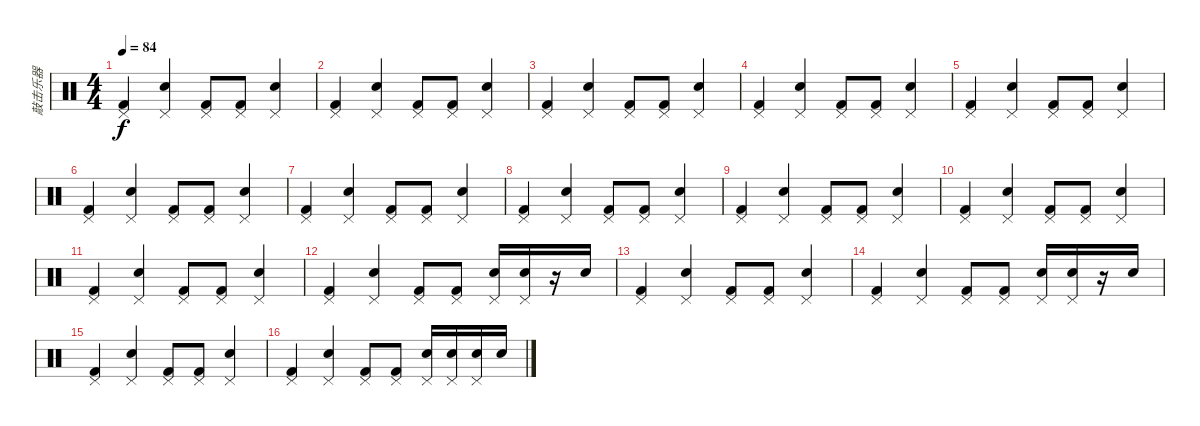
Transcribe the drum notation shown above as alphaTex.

\track ("敲击乐器" "敲击乐器") {instrument percussion}
\staff {score}
\articulation defaults
\ts (4 4)
\tempo 84
\clef neutral
\ks c
("Kick (hit) 2" "Pedal Hi-Hat (hit)").4{dy f} ("Snare (hit) 2" "Pedal Hi-Hat (hit)").4 ("Kick (hit) 2" "Pedal Hi-Hat (hit)").8 ("Kick (hit) 2" "Pedal Hi-Hat (hit)").8 ("Snare (hit) 2" "Pedal Hi-Hat (hit)").4 |
("Kick (hit) 2" "Pedal Hi-Hat (hit)").4 ("Snare (hit) 2" "Pedal Hi-Hat (hit)").4 ("Kick (hit) 2" "Pedal Hi-Hat (hit)").8 ("Kick (hit) 2" "Pedal Hi-Hat (hit)").8 ("Snare (hit) 2" "Pedal Hi-Hat (hit)").4 |
("Kick (hit) 2" "Pedal Hi-Hat (hit)").4 ("Snare (hit) 2" "Pedal Hi-Hat (hit)").4 ("Kick (hit) 2" "Pedal Hi-Hat (hit)").8 ("Kick (hit) 2" "Pedal Hi-Hat (hit)").8 ("Snare (hit) 2" "Pedal Hi-Hat (hit)").4 |
("Kick (hit) 2" "Pedal Hi-Hat (hit)").4 ("Snare (hit) 2" "Pedal Hi-Hat (hit)").4 ("Kick (hit) 2" "Pedal Hi-Hat (hit)").8 ("Kick (hit) 2" "Pedal Hi-Hat (hit)").8 ("Snare (hit) 2" "Pedal Hi-Hat (hit)").4 |
("Kick (hit) 2" "Pedal Hi-Hat (hit)").4 ("Snare (hit) 2" "Pedal Hi-Hat (hit)").4 ("Kick (hit) 2" "Pedal Hi-Hat (hit)").8 ("Kick (hit) 2" "Pedal Hi-Hat (hit)").8 ("Snare (hit) 2" "Pedal Hi-Hat (hit)").4 |
("Kick (hit) 2" "Pedal Hi-Hat (hit)").4 ("Snare (hit) 2" "Pedal Hi-Hat (hit)").4 ("Kick (hit) 2" "Pedal Hi-Hat (hit)").8 ("Kick (hit) 2" "Pedal Hi-Hat (hit)").8 ("Snare (hit) 2" "Pedal Hi-Hat (hit)").4 |
("Kick (hit) 2" "Pedal Hi-Hat (hit)").4 ("Snare (hit) 2" "Pedal Hi-Hat (hit)").4 ("Kick (hit) 2" "Pedal Hi-Hat (hit)").8 ("Kick (hit) 2" "Pedal Hi-Hat (hit)").8 ("Snare (hit) 2" "Pedal Hi-Hat (hit)").4 |
("Kick (hit) 2" "Pedal Hi-Hat (hit)").4 ("Snare (hit) 2" "Pedal Hi-Hat (hit)").4 ("Kick (hit) 2" "Pedal Hi-Hat (hit)").8 ("Kick (hit) 2" "Pedal Hi-Hat (hit)").8 ("Snare (hit) 2" "Pedal Hi-Hat (hit)").4 |
("Kick (hit) 2" "Pedal Hi-Hat (hit)").4 ("Snare (hit) 2" "Pedal Hi-Hat (hit)").4 ("Kick (hit) 2" "Pedal Hi-Hat (hit)").8 ("Kick (hit) 2" "Pedal Hi-Hat (hit)").8 ("Snare (hit) 2" "Pedal Hi-Hat (hit)").4 |
("Kick (hit) 2" "Pedal Hi-Hat (hit)").4 ("Snare (hit) 2" "Pedal Hi-Hat (hit)").4 ("Kick (hit) 2" "Pedal Hi-Hat (hit)").8 ("Kick (hit) 2" "Pedal Hi-Hat (hit)").8 ("Snare (hit) 2" "Pedal Hi-Hat (hit)").4 |
("Kick (hit) 2" "Pedal Hi-Hat (hit)").4 ("Snare (hit) 2" "Pedal Hi-Hat (hit)").4 ("Kick (hit) 2" "Pedal Hi-Hat (hit)").8 ("Kick (hit) 2" "Pedal Hi-Hat (hit)").8 ("Snare (hit) 2" "Pedal Hi-Hat (hit)").4 |
("Kick (hit) 2" "Pedal Hi-Hat (hit)").4 ("Snare (hit) 2" "Pedal Hi-Hat (hit)").4 ("Kick (hit) 2" "Pedal Hi-Hat (hit)").8 ("Kick (hit) 2" "Pedal Hi-Hat (hit)").8 ("Snare (hit) 2" "Pedal Hi-Hat (hit)").16 ("Snare (hit) 2" "Pedal Hi-Hat (hit)").16 r.16 "Snare (hit) 2".16 |
("Kick (hit) 2" "Pedal Hi-Hat (hit)").4 ("Snare (hit) 2" "Pedal Hi-Hat (hit)").4 ("Kick (hit) 2" "Pedal Hi-Hat (hit)").8 ("Kick (hit) 2" "Pedal Hi-Hat (hit)").8 ("Snare (hit) 2" "Pedal Hi-Hat (hit)").4 |
("Kick (hit) 2" "Pedal Hi-Hat (hit)").4 ("Snare (hit) 2" "Pedal Hi-Hat (hit)").4 ("Kick (hit) 2" "Pedal Hi-Hat (hit)").8 ("Kick (hit) 2" "Pedal Hi-Hat (hit)").8 ("Snare (hit) 2" "Pedal Hi-Hat (hit)").16 ("Snare (hit) 2" "Pedal Hi-Hat (hit)").16 r.16 "Snare (hit) 2".16 |
("Kick (hit) 2" "Pedal Hi-Hat (hit)").4 ("Snare (hit) 2" "Pedal Hi-Hat (hit)").4 ("Kick (hit) 2" "Pedal Hi-Hat (hit)").8 ("Kick (hit) 2" "Pedal Hi-Hat (hit)").8 ("Snare (hit) 2" "Pedal Hi-Hat (hit)").4 |
("Kick (hit) 2" "Pedal Hi-Hat (hit)").4 ("Snare (hit) 2" "Pedal Hi-Hat (hit)").4 ("Kick (hit) 2" "Pedal Hi-Hat (hit)").8 ("Kick (hit) 2" "Pedal Hi-Hat (hit)").8 ("Snare (hit) 2" "Pedal Hi-Hat (hit)").16 ("Snare (hit) 2" "Pedal Hi-Hat (hit)").16 ("Snare (hit) 2" "Pedal Hi-Hat (hit)").16 "Snare (hit) 2".16
